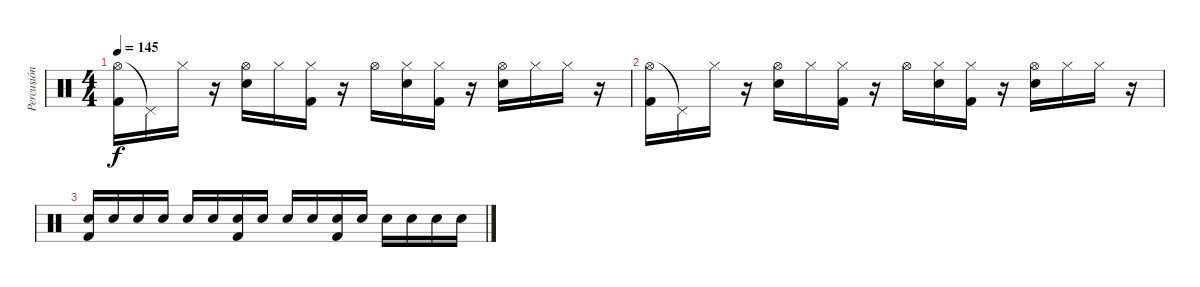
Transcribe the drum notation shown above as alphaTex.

\track ("Percusión" "Percusión") {instrument percussion}
\staff {score}
\articulation defaults
\ts (4 4)
\tempo 145
\clef neutral
\ks c
("Hi-Hat (open)" "Kick (hit) 2").16{dy f} "Pedal Hi-Hat (hit)"{t}.16 "Hi-Hat (closed)".16 r.16 ("Hi-Hat (open)" "Electric Snare (hit)").16 "Hi-Hat (closed)".16 ("Hi-Hat (closed)" "Kick (hit) 2").16 r.16 "Hi-Hat (open)".16 ("Hi-Hat (closed)" "Electric Snare (hit)").16 ("Hi-Hat (closed)" "Kick (hit) 2").16 r.16 ("Hi-Hat (open)" "Electric Snare (hit)").16 "Hi-Hat (closed)".16 "Hi-Hat (closed)".16 r.16 |
("Hi-Hat (open)" "Kick (hit) 2").16 "Pedal Hi-Hat (hit)"{t}.16 "Hi-Hat (closed)".16 r.16 ("Hi-Hat (open)" "Electric Snare (hit)").16 "Hi-Hat (closed)".16 ("Hi-Hat (closed)" "Kick (hit) 2").16 r.16 "Hi-Hat (open)".16 ("Hi-Hat (closed)" "Electric Snare (hit)").16 ("Hi-Hat (closed)" "Kick (hit) 2").16 r.16 ("Hi-Hat (open)" "Electric Snare (hit)").16 "Hi-Hat (closed)".16 "Hi-Hat (closed)".16 r.16 |
("Snare (hit) 2" "Kick (hit) 2").16 "Snare (hit) 2".16 "Snare (hit) 2".16 "Snare (hit) 2".16 "Snare (hit) 2".16 "Snare (hit) 2".16 ("Snare (hit) 2" "Kick (hit) 2").16 "Snare (hit) 2".16 "Snare (hit) 2".16 "Snare (hit) 2".16 ("Snare (hit) 2" "Kick (hit) 2").16 "Snare (hit) 2".16 "Snare (hit) 2".16 "Snare (hit) 2".16 "Snare (hit) 2".16 "Snare (hit) 2".16
